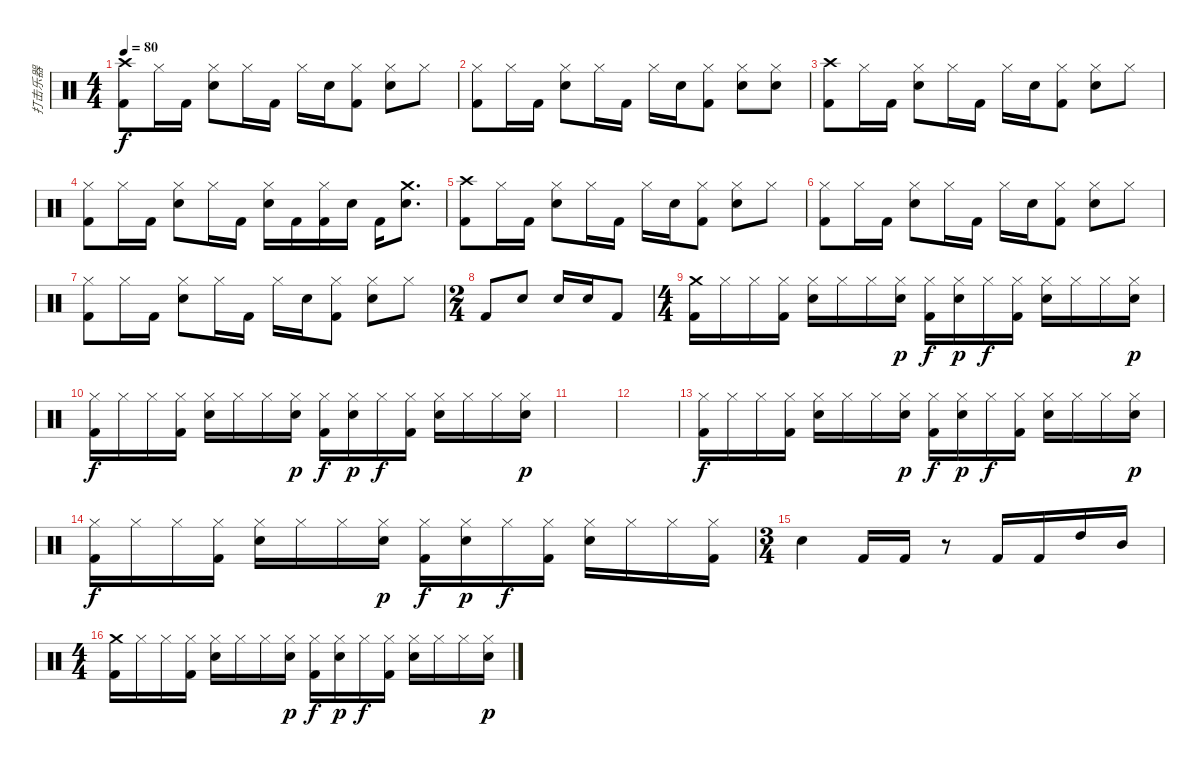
\track ("打击乐器" "打击乐器") {instrument percussion}
\staff {score}
\articulation defaults
\ts (4 4)
\tempo 80
\clef neutral
\ks c
("Crash high (hit)" "Kick (hit) 2").8{dy f} "Hi-Hat (closed)".16 "Kick (hit) 2".16 ("Hi-Hat (closed)" "Electric Snare (hit)").8 "Hi-Hat (closed)".16 "Kick (hit) 2".16 "Hi-Hat (closed)".16 "Electric Snare (hit)".16 ("Hi-Hat (closed)" "Kick (hit) 2").8 ("Hi-Hat (closed)" "Electric Snare (hit)").8 "Hi-Hat (closed)".8 |
("Hi-Hat (closed)" "Kick (hit) 2").8 "Hi-Hat (closed)".16 "Kick (hit) 2".16 ("Hi-Hat (closed)" "Electric Snare (hit)").8 "Hi-Hat (closed)".16 "Kick (hit) 2".16 "Hi-Hat (closed)".16 "Electric Snare (hit)".16 ("Hi-Hat (closed)" "Kick (hit) 2").8 ("Hi-Hat (closed)" "Electric Snare (hit)").8 ("Hi-Hat (closed)" "Electric Snare (hit)").8 |
("Crash high (hit)" "Kick (hit) 2").8 "Hi-Hat (closed)".16 "Kick (hit) 2".16 ("Hi-Hat (closed)" "Electric Snare (hit)").8 "Hi-Hat (closed)".16 "Kick (hit) 2".16 "Hi-Hat (closed)".16 "Electric Snare (hit)".16 ("Hi-Hat (closed)" "Kick (hit) 2").8 ("Hi-Hat (closed)" "Electric Snare (hit)").8 "Hi-Hat (closed)".8 |
("Hi-Hat (closed)" "Kick (hit) 2").8 "Hi-Hat (closed)".16 "Kick (hit) 2".16 ("Hi-Hat (closed)" "Electric Snare (hit)").8 "Hi-Hat (closed)".16 "Kick (hit) 2".16 ("Hi-Hat (closed)" "Electric Snare (hit)").16 "Kick (hit) 2".16 ("Hi-Hat (closed)" "Kick (hit) 2").16 "Electric Snare (hit)".16 "Kick (hit) 2".16 ("Crash medium (hit)" "Electric Snare (hit)").8{d} |
("Crash high (hit)" "Kick (hit) 2").8 "Hi-Hat (closed)".16 "Kick (hit) 2".16 ("Hi-Hat (closed)" "Electric Snare (hit)").8 "Hi-Hat (closed)".16 "Kick (hit) 2".16 "Hi-Hat (closed)".16 "Electric Snare (hit)".16 ("Hi-Hat (closed)" "Kick (hit) 2").8 ("Hi-Hat (closed)" "Electric Snare (hit)").8 "Hi-Hat (closed)".8 |
("Hi-Hat (closed)" "Kick (hit) 2").8 "Hi-Hat (closed)".16 "Kick (hit) 2".16 ("Hi-Hat (closed)" "Electric Snare (hit)").8 "Hi-Hat (closed)".16 "Kick (hit) 2".16 "Hi-Hat (closed)".16 "Electric Snare (hit)".16 ("Hi-Hat (closed)" "Kick (hit) 2").8 ("Hi-Hat (closed)" "Electric Snare (hit)").8 "Hi-Hat (closed)".8 |
("Hi-Hat (closed)" "Kick (hit) 2").8 "Hi-Hat (closed)".16 "Kick (hit) 2".16 ("Hi-Hat (closed)" "Electric Snare (hit)").8 "Hi-Hat (closed)".16 "Kick (hit) 2".16 "Hi-Hat (closed)".16 "Electric Snare (hit)".16 ("Hi-Hat (closed)" "Kick (hit) 2").8 ("Hi-Hat (closed)" "Electric Snare (hit)").8 "Hi-Hat (closed)".8 |
\ts (2 4)
"Kick (hit) 2".8 "Electric Snare (hit)".8 "Electric Snare (hit)".16 "Electric Snare (hit)".16 "Kick (hit) 2".8 |
\ts (4 4)
("Crash medium (hit)" "Kick (hit) 2").16 "Hi-Hat (closed)".16 "Hi-Hat (closed)".16 ("Hi-Hat (closed)" "Kick (hit) 2").16 ("Hi-Hat (closed)" "Snare (hit) 2").16 "Hi-Hat (closed)".16 "Hi-Hat (closed)".16 ("Hi-Hat (closed)" "Hand Clap (hit)").16{dy p} ("Hi-Hat (closed)" "Kick (hit) 2").16{dy f} ("Hi-Hat (closed)" "Hand Clap (hit)").16{dy p} "Hi-Hat (closed)".16{dy f} ("Hi-Hat (closed)" "Kick (hit) 2").16 ("Hi-Hat (closed)" "Snare (hit) 2").16 "Hi-Hat (closed)".16 "Hi-Hat (closed)".16 ("Hi-Hat (closed)" "Hand Clap (hit)").16{dy p} |
("Hi-Hat (closed)" "Kick (hit) 2").16{dy f} "Hi-Hat (closed)".16 "Hi-Hat (closed)".16 ("Hi-Hat (closed)" "Kick (hit) 2").16 ("Hi-Hat (closed)" "Snare (hit) 2").16 "Hi-Hat (closed)".16 "Hi-Hat (closed)".16 ("Hi-Hat (closed)" "Hand Clap (hit)").16{dy p} ("Hi-Hat (closed)" "Kick (hit) 2").16{dy f} ("Hi-Hat (closed)" "Hand Clap (hit)").16{dy p} "Hi-Hat (closed)".16{dy f} ("Hi-Hat (closed)" "Kick (hit) 2").16 ("Hi-Hat (closed)" "Snare (hit) 2").16 "Hi-Hat (closed)".16 "Hi-Hat (closed)".16 ("Hi-Hat (closed)" "Hand Clap (hit)").16{dy p} |
|
|
("Hi-Hat (closed)" "Kick (hit) 2").16{dy f} "Hi-Hat (closed)".16 "Hi-Hat (closed)".16 ("Hi-Hat (closed)" "Kick (hit) 2").16 ("Hi-Hat (closed)" "Snare (hit) 2").16 "Hi-Hat (closed)".16 "Hi-Hat (closed)".16 ("Hi-Hat (closed)" "Hand Clap (hit)").16{dy p} ("Hi-Hat (closed)" "Kick (hit) 2").16{dy f} ("Hi-Hat (closed)" "Hand Clap (hit)").16{dy p} "Hi-Hat (closed)".16{dy f} ("Hi-Hat (closed)" "Kick (hit) 2").16 ("Hi-Hat (closed)" "Snare (hit) 2").16 "Hi-Hat (closed)".16 "Hi-Hat (closed)".16 ("Hi-Hat (closed)" "Hand Clap (hit)").16{dy p} |
("Hi-Hat (closed)" "Kick (hit) 2").16{dy f} "Hi-Hat (closed)".16 "Hi-Hat (closed)".16 ("Hi-Hat (closed)" "Kick (hit) 2").16 ("Hi-Hat (closed)" "Snare (hit) 2").16 "Hi-Hat (closed)".16 "Hi-Hat (closed)".16 ("Hi-Hat (closed)" "Hand Clap (hit)").16{dy p} ("Hi-Hat (closed)" "Kick (hit) 2").16{dy f} ("Hi-Hat (closed)" "Hand Clap (hit)").16{dy p} "Hi-Hat (closed)".16{dy f} ("Hi-Hat (closed)" "Kick (hit) 2").16 ("Hi-Hat (closed)" "Snare (hit) 2").16 "Hi-Hat (closed)".16 "Hi-Hat (closed)".16 ("Hi-Hat (closed)" "Kick (hit) 2").16 |
\ts (3 4)
"Snare (hit) 2".4 "Kick (hit) 2".16 "Kick (hit) 2".16 r.8 "Kick (hit) 2".16 "Kick (hit) 2".16 "High Tom (hit)".16 "Mid Tom (hit)".16 |
\ts (4 4)
("Crash medium (hit)" "Kick (hit) 2").16 "Hi-Hat (closed)".16 "Hi-Hat (closed)".16 ("Hi-Hat (closed)" "Kick (hit) 2").16 ("Hi-Hat (closed)" "Snare (hit) 2").16 "Hi-Hat (closed)".16 "Hi-Hat (closed)".16 ("Hi-Hat (closed)" "Hand Clap (hit)").16{dy p} ("Hi-Hat (closed)" "Kick (hit) 2").16{dy f} ("Hi-Hat (closed)" "Hand Clap (hit)").16{dy p} "Hi-Hat (closed)".16{dy f} ("Hi-Hat (closed)" "Kick (hit) 2").16 ("Hi-Hat (closed)" "Snare (hit) 2").16 "Hi-Hat (closed)".16 "Hi-Hat (closed)".16 ("Hi-Hat (closed)" "Hand Clap (hit)").16{dy p}
